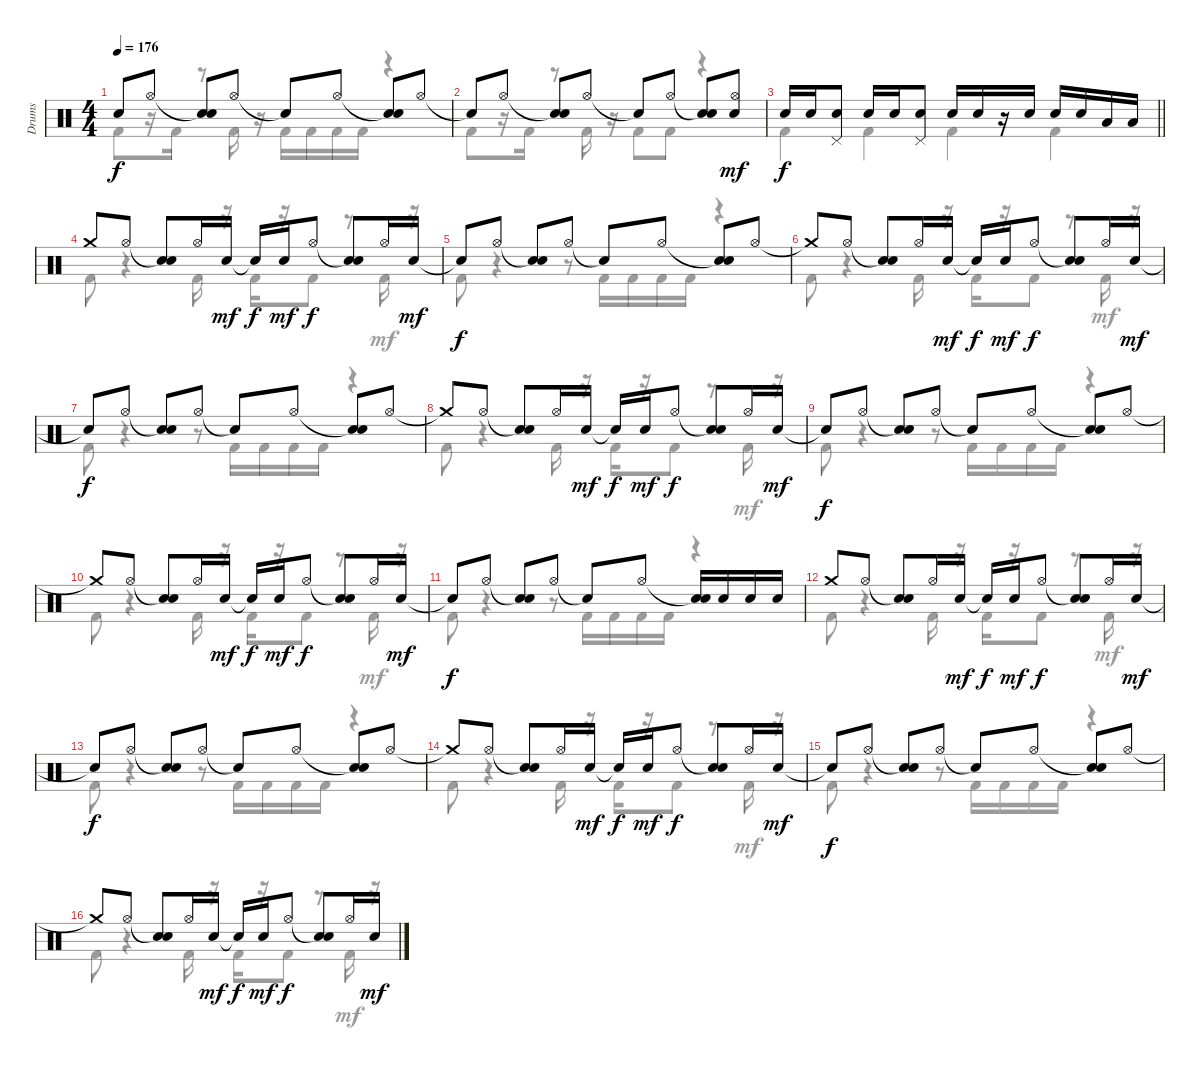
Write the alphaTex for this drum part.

\track ("Drums" "Drums") {instrument percussion}
\staff {score}
\articulation defaults
\voice
\ts (4 4)
\tempo 176
\clef neutral
\ks c "Snare (hit)"{t}.8{dy f} "Hi-Hat (open)".8
("Snare (hit)"{t} "Snare (hit) 2").8 "Hi-Hat (open)".8 "Snare (hit)"{t}.8 "Hi-Hat (open)".8 ("Snare (hit)"{t} "Snare (hit) 2").8 "Hi-Hat (open)".8 |
"Snare (hit)"{t}.8 "Hi-Hat (open)".8 ("Snare (hit)"{t} "Snare (hit) 2").8 "Hi-Hat (open)".8 "Snare (hit)"{t}.8 "Hi-Hat (open)".8 ("Snare (hit)"{t} "Snare (hit) 2").8 ("Hi-Hat (open)" "Electric Snare (hit)").8{dy mf} |
\barLineRight lightlight "Snare (hit) 2".16{dy f} "Snare (hit) 2".16
("Pedal Hi-Hat (hit)" "Snare (hit) 2").8 "Snare (hit) 2".16 "Snare (hit) 2".16 ("Pedal Hi-Hat (hit)" "Snare (hit) 2").8 "Snare (hit) 2".16 "Snare (hit) 2".16 r.16 "Snare (hit) 2".16 "Snare (hit) 2".16 "Snare (hit) 2".16 "Low Tom (hit)".16 "Low Tom (hit)".16 |
"Crash medium (hit)".8 "Hi-Hat (open)".8 ("Snare (hit)"{t} "Snare (hit) 2").8 "Hi-Hat (open)".16 "Snare (hit) 2".16{dy mf} "Snare (hit)"{t}.16{dy f} "Snare (hit) 2".16{dy mf} "Hi-Hat (open)".8{dy f} ("Snare (hit)"{t} "Snare (hit) 2").8 "Hi-Hat (open)".16 "Snare (hit) 2".16{dy mf} |
"Snare (hit)"{t}.8{dy f} "Hi-Hat (open)".8 ("Snare (hit)"{t} "Snare (hit) 2").8 "Hi-Hat (open)".8 "Snare (hit)"{t}.8 "Hi-Hat (open)".8 ("Snare (hit)"{t} "Snare (hit) 2").8 "Hi-Hat (open)".8 |
"Crash medium (hit)"{t}.8 "Hi-Hat (open)".8 ("Snare (hit)"{t} "Snare (hit) 2").8 "Hi-Hat (open)".16 "Snare (hit) 2".16{dy mf} "Snare (hit)"{t}.16{dy f} "Snare (hit) 2".16{dy mf} "Hi-Hat (open)".8{dy f} ("Snare (hit)"{t} "Snare (hit) 2").8 "Hi-Hat (open)".16 "Snare (hit) 2".16{dy mf} |
"Snare (hit)"{t}.8{dy f} "Hi-Hat (open)".8 ("Snare (hit)"{t} "Snare (hit) 2").8 "Hi-Hat (open)".8 "Snare (hit)"{t}.8 "Hi-Hat (open)".8 ("Snare (hit)"{t} "Snare (hit) 2").8 "Hi-Hat (open)".8 |
"Crash medium (hit)"{t}.8 "Hi-Hat (open)".8 ("Snare (hit)"{t} "Snare (hit) 2").8 "Hi-Hat (open)".16 "Snare (hit) 2".16{dy mf} "Snare (hit)"{t}.16{dy f} "Snare (hit) 2".16{dy mf} "Hi-Hat (open)".8{dy f} ("Snare (hit)"{t} "Snare (hit) 2").8 "Hi-Hat (open)".16 "Snare (hit) 2".16{dy mf} |
"Snare (hit)"{t}.8{dy f} "Hi-Hat (open)".8 ("Snare (hit)"{t} "Snare (hit) 2").8 "Hi-Hat (open)".8 "Snare (hit)"{t}.8 "Hi-Hat (open)".8 ("Snare (hit)"{t} "Snare (hit) 2").8 "Hi-Hat (open)".8 |
"Crash medium (hit)"{t}.8 "Hi-Hat (open)".8 ("Snare (hit)"{t} "Snare (hit) 2").8 "Hi-Hat (open)".16 "Snare (hit) 2".16{dy mf} "Snare (hit)"{t}.16{dy f} "Snare (hit) 2".16{dy mf} "Hi-Hat (open)".8{dy f} ("Snare (hit)"{t} "Snare (hit) 2").8 "Hi-Hat (open)".16 "Snare (hit) 2".16{dy mf} |
"Snare (hit)"{t}.8{dy f} "Hi-Hat (open)".8 ("Snare (hit)"{t} "Snare (hit) 2").8 "Hi-Hat (open)".8 "Snare (hit)"{t}.8 "Hi-Hat (open)".8 ("Snare (hit)"{t} "Snare (hit) 2").16 "Snare (hit) 2".16 "Snare (hit) 2".16 "Snare (hit) 2".16 |
"Crash medium (hit)".8 "Hi-Hat (open)".8 ("Snare (hit)"{t} "Snare (hit) 2").8 "Hi-Hat (open)".16 "Snare (hit) 2".16{dy mf} "Snare (hit)"{t}.16{dy f} "Snare (hit) 2".16{dy mf} "Hi-Hat (open)".8{dy f} ("Snare (hit)"{t} "Snare (hit) 2").8 "Hi-Hat (open)".16 "Snare (hit) 2".16{dy mf} |
"Snare (hit)"{t}.8{dy f} "Hi-Hat (open)".8 ("Snare (hit)"{t} "Snare (hit) 2").8 "Hi-Hat (open)".8 "Snare (hit)"{t}.8 "Hi-Hat (open)".8 ("Snare (hit)"{t} "Snare (hit) 2").8 "Hi-Hat (open)".8 |
"Crash medium (hit)"{t}.8 "Hi-Hat (open)".8 ("Snare (hit)"{t} "Snare (hit) 2").8 "Hi-Hat (open)".16 "Snare (hit) 2".16{dy mf} "Snare (hit)"{t}.16{dy f} "Snare (hit) 2".16{dy mf} "Hi-Hat (open)".8{dy f} ("Snare (hit)"{t} "Snare (hit) 2").8 "Hi-Hat (open)".16 "Snare (hit) 2".16{dy mf} |
"Snare (hit)"{t}.8{dy f} "Hi-Hat (open)".8 ("Snare (hit)"{t} "Snare (hit) 2").8 "Hi-Hat (open)".8 "Snare (hit)"{t}.8 "Hi-Hat (open)".8 ("Snare (hit)"{t} "Snare (hit) 2").8 "Hi-Hat (open)".8 |
"Crash medium (hit)"{t}.8 "Hi-Hat (open)".8 ("Snare (hit)"{t} "Snare (hit) 2").8 "Hi-Hat (open)".16 "Snare (hit) 2".16{dy mf} "Snare (hit)"{t}.16{dy f} "Snare (hit) 2".16{dy mf} "Hi-Hat (open)".8{dy f} ("Snare (hit)"{t} "Snare (hit) 2").8 "Hi-Hat (open)".16 "Snare (hit) 2".16{dy mf}
\voice
\clef neutral
\ottava regular
\simile none
\ks c "Kick (hit) 2".8{dy f}
r.16 "Kick (hit) 2".16 r.8 "Kick (hit) 2".16 r.16 "Kick (hit) 2".16 "Kick (hit) 2".16 "Kick (hit) 2".16 "Kick (hit) 2".16 r.4 |
"Kick (hit) 2".8 r.16 "Kick (hit) 2".16 r.8 "Kick (hit) 2".16 r.16 "Kick (hit) 2".8 "Kick (hit) 2".8 r.4 |
\barLineRight lightlight "Kick (hit) 2".4 "Kick (hit) 2".4 "Kick (hit) 2".4 "Kick (hit) 2".4
|
"Kick (hit) 2".8 r.4 "Kick (hit) 2".16 r.16 "Kick (hit) 2".16 r.16 "Kick (hit) 2".8 r.8 "Kick (hit) 2".16{dy mf} r.16 |
"Kick (hit) 2".8{dy f} r.4 r.8 "Kick (hit) 2".16 "Kick (hit) 2".16 "Kick (hit) 2".16 "Kick (hit) 2".16 r.4 |
"Kick (hit) 2".8 r.4 "Kick (hit) 2".16 r.16 "Kick (hit) 2".16 r.16 "Kick (hit) 2".8 r.8 "Kick (hit) 2".16{dy mf} r.16 |
"Kick (hit) 2".8{dy f} r.4 r.8 "Kick (hit) 2".16 "Kick (hit) 2".16 "Kick (hit) 2".16 "Kick (hit) 2".16 r.4 |
"Kick (hit) 2".8 r.4 "Kick (hit) 2".16 r.16 "Kick (hit) 2".16 r.16 "Kick (hit) 2".8 r.8 "Kick (hit) 2".16{dy mf} r.16 |
"Kick (hit) 2".8{dy f} r.4 r.8 "Kick (hit) 2".16 "Kick (hit) 2".16 "Kick (hit) 2".16 "Kick (hit) 2".16 r.4 |
"Kick (hit) 2".8 r.4 "Kick (hit) 2".16 r.16 "Kick (hit) 2".16 r.16 "Kick (hit) 2".8 r.8 "Kick (hit) 2".16{dy mf} r.16 |
"Kick (hit) 2".8{dy f} r.4 r.8 "Kick (hit) 2".16 "Kick (hit) 2".16 "Kick (hit) 2".16 "Kick (hit) 2".16 r.4 |
"Kick (hit) 2".8 r.4 "Kick (hit) 2".16 r.16 "Kick (hit) 2".16 r.16 "Kick (hit) 2".8 r.8 "Kick (hit) 2".16{dy mf} r.16 |
"Kick (hit) 2".8{dy f} r.4 r.8 "Kick (hit) 2".16 "Kick (hit) 2".16 "Kick (hit) 2".16 "Kick (hit) 2".16 r.4 |
"Kick (hit) 2".8 r.4 "Kick (hit) 2".16 r.16 "Kick (hit) 2".16 r.16 "Kick (hit) 2".8 r.8 "Kick (hit) 2".16{dy mf} r.16 |
"Kick (hit) 2".8{dy f} r.4 r.8 "Kick (hit) 2".16 "Kick (hit) 2".16 "Kick (hit) 2".16 "Kick (hit) 2".16 r.4 |
"Kick (hit) 2".8 r.4 "Kick (hit) 2".16 r.16 "Kick (hit) 2".16 r.16 "Kick (hit) 2".8 r.8 "Kick (hit) 2".16{dy mf} r.16
